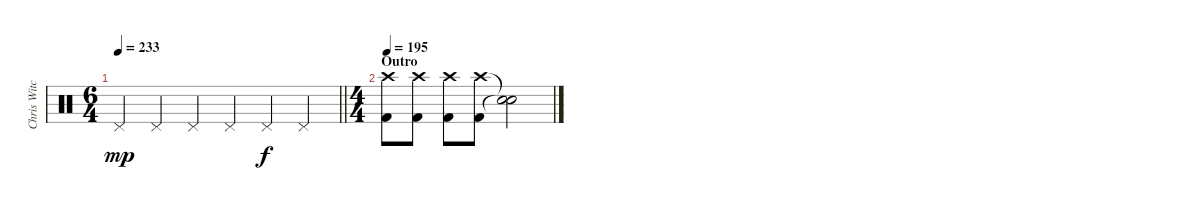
\track ("Chris Witchunter" "Chris Witc") {instrument percussion}
\staff {score}
\articulation defaults
\ts (6 4)
\tempo 233
\clef neutral
\barLineRight lightlight
\ks c "Pedal Hi-Hat (hit)".4{dy mp} "Pedal Hi-Hat (hit)".4 "Pedal Hi-Hat (hit)".4 "Pedal Hi-Hat (hit)".4 "Pedal Hi-Hat (hit)".4{dy f} "Pedal Hi-Hat (hit)".4
|
\ts (4 4)
\section ("" "Outro")
\tempo 195
("Crash high (hit)" "Kick (hit) 2").8 ("Crash high (hit)" "Kick (hit) 2").8 ("Crash high (hit)" "Kick (hit) 2").8 ("Crash high (hit)" "Kick (hit) 2").8 ("Snare (hit)"{t} "Snare (hit)"{t}).2
